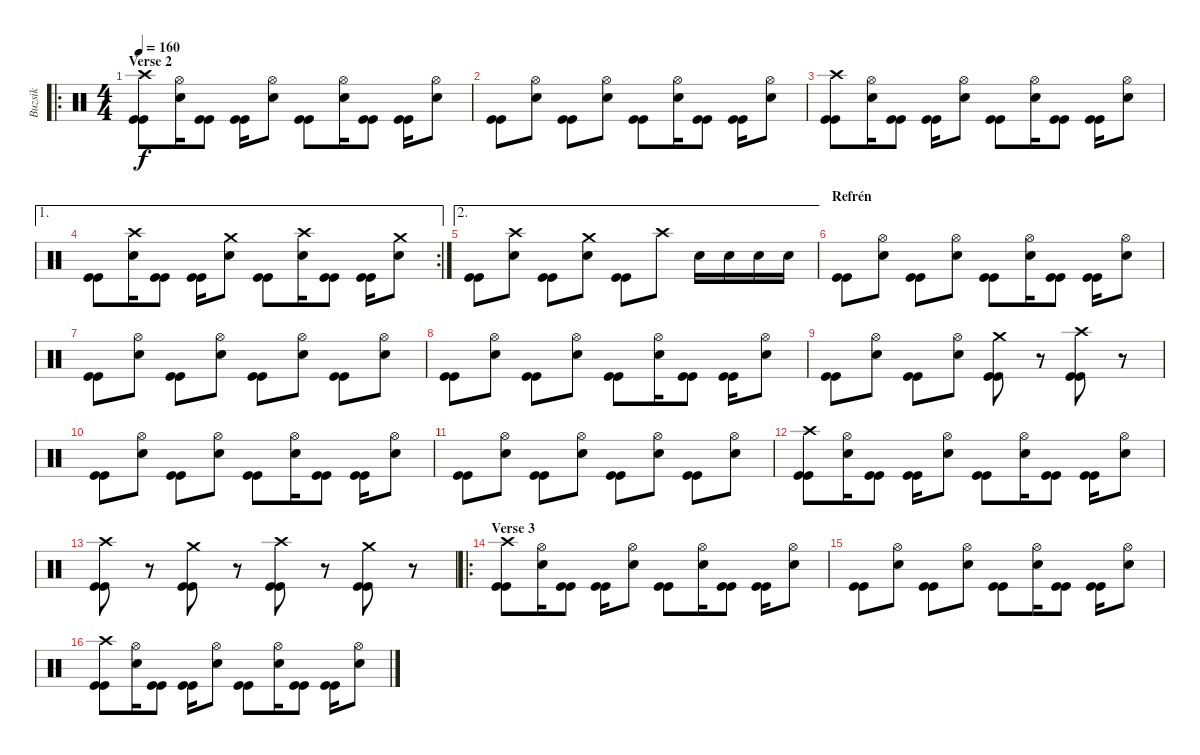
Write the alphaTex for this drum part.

\track ("Buzsik" "Buzsik") {instrument percussion}
\staff {score}
\articulation defaults
\ro
\ts (4 4)
\section ("" "Verse 2")
\tempo 160
\clef neutral
\ks c
("Crash high (hit)" "Kick (hit)" "Kick (hit)").8{dy f} ("Hi-Hat (open)" "Electric Snare (hit)").16 ("Kick (hit)" "Kick (hit)").8 ("Kick (hit)" "Kick (hit)").16 ("Hi-Hat (open)" "Electric Snare (hit)").8 ("Kick (hit)" "Kick (hit)").8 ("Hi-Hat (open)" "Electric Snare (hit)").16 ("Kick (hit)" "Kick (hit)").8 ("Kick (hit)" "Kick (hit)").16 ("Hi-Hat (open)" "Electric Snare (hit)").8 |
("Kick (hit)" "Kick (hit)").8 ("Hi-Hat (open)" "Electric Snare (hit)").8 ("Kick (hit)" "Kick (hit)").8 ("Hi-Hat (open)" "Electric Snare (hit)").8 ("Kick (hit)" "Kick (hit)").8 ("Hi-Hat (open)" "Electric Snare (hit)").16 ("Kick (hit)" "Kick (hit)").8 ("Kick (hit)" "Kick (hit)").16 ("Hi-Hat (open)" "Electric Snare (hit)").8 |
("Crash high (hit)" "Kick (hit)" "Kick (hit)").8 ("Hi-Hat (open)" "Electric Snare (hit)").16 ("Kick (hit)" "Kick (hit)").8 ("Kick (hit)" "Kick (hit)").16 ("Hi-Hat (open)" "Electric Snare (hit)").8 ("Kick (hit)" "Kick (hit)").8 ("Hi-Hat (open)" "Electric Snare (hit)").16 ("Kick (hit)" "Kick (hit)").8 ("Kick (hit)" "Kick (hit)").16 ("Hi-Hat (open)" "Electric Snare (hit)").8 |
\ae 1
\rc 2
("Kick (hit)" "Kick (hit)").8 ("Crash high (hit)" "Electric Snare (hit)").16 ("Kick (hit)" "Kick (hit)").8 ("Kick (hit)" "Kick (hit)").16 ("Crash medium (hit)" "Electric Snare (hit)").8 ("Kick (hit)" "Kick (hit)").8 ("Crash high (hit)" "Electric Snare (hit)").16 ("Kick (hit)" "Kick (hit)").8 ("Kick (hit)" "Kick (hit)").16 ("Crash medium (hit)" "Electric Snare (hit)").8 |
\ae 2
("Kick (hit)" "Kick (hit)").8 ("Crash high (hit)" "Electric Snare (hit)").8 ("Kick (hit)" "Kick (hit)").8 ("Crash medium (hit)" "Electric Snare (hit)").8 ("Kick (hit)" "Kick (hit)").8 "Crash high (hit)".8 "Electric Snare (hit)".16 "Electric Snare (hit)".16 "Electric Snare (hit)".16 "Electric Snare (hit)".16 |
\section ("" "Refrén")
("Kick (hit)" "Kick (hit)").8 ("Hi-Hat (open)" "Electric Snare (hit)").8 ("Kick (hit)" "Kick (hit)").8 ("Hi-Hat (open)" "Electric Snare (hit)").8 ("Kick (hit)" "Kick (hit)").8 ("Hi-Hat (open)" "Electric Snare (hit)").16 ("Kick (hit)" "Kick (hit)").8 ("Kick (hit)" "Kick (hit)").16 ("Hi-Hat (open)" "Electric Snare (hit)").8 |
("Kick (hit)" "Kick (hit)").8 ("Hi-Hat (open)" "Electric Snare (hit)").8 ("Kick (hit)" "Kick (hit)").8 ("Hi-Hat (open)" "Electric Snare (hit)").8 ("Kick (hit)" "Kick (hit)").8 ("Hi-Hat (open)" "Electric Snare (hit)").8 ("Kick (hit)" "Kick (hit)").8 ("Hi-Hat (open)" "Electric Snare (hit)").8 |
("Kick (hit)" "Kick (hit)").8 ("Hi-Hat (open)" "Electric Snare (hit)").8 ("Kick (hit)" "Kick (hit)").8 ("Hi-Hat (open)" "Electric Snare (hit)").8 ("Kick (hit)" "Kick (hit)").8 ("Hi-Hat (open)" "Electric Snare (hit)").16 ("Kick (hit)" "Kick (hit)").8 ("Kick (hit)" "Kick (hit)").16 ("Hi-Hat (open)" "Electric Snare (hit)").8 |
("Kick (hit)" "Kick (hit)").8 ("Hi-Hat (open)" "Electric Snare (hit)").8 ("Kick (hit)" "Kick (hit)").8 ("Hi-Hat (open)" "Electric Snare (hit)").8 ("Crash medium (hit)" "Kick (hit)" "Kick (hit)").8 r.8 ("Crash high (hit)" "Kick (hit)" "Kick (hit)").8 r.8 |
("Kick (hit)" "Kick (hit)").8 ("Hi-Hat (open)" "Electric Snare (hit)").8 ("Kick (hit)" "Kick (hit)").8 ("Hi-Hat (open)" "Electric Snare (hit)").8 ("Kick (hit)" "Kick (hit)").8 ("Hi-Hat (open)" "Electric Snare (hit)").16 ("Kick (hit)" "Kick (hit)").8 ("Kick (hit)" "Kick (hit)").16 ("Hi-Hat (open)" "Electric Snare (hit)").8 |
("Kick (hit)" "Kick (hit)").8 ("Hi-Hat (open)" "Electric Snare (hit)").8 ("Kick (hit)" "Kick (hit)").8 ("Hi-Hat (open)" "Electric Snare (hit)").8 ("Kick (hit)" "Kick (hit)").8 ("Hi-Hat (open)" "Electric Snare (hit)").8 ("Kick (hit)" "Kick (hit)").8 ("Hi-Hat (open)" "Electric Snare (hit)").8 |
("Crash high (hit)" "Kick (hit)" "Kick (hit)").8 ("Hi-Hat (open)" "Electric Snare (hit)").16 ("Kick (hit)" "Kick (hit)").8 ("Kick (hit)" "Kick (hit)").16 ("Hi-Hat (open)" "Electric Snare (hit)").8 ("Kick (hit)" "Kick (hit)").8 ("Hi-Hat (open)" "Electric Snare (hit)").16 ("Kick (hit)" "Kick (hit)").8 ("Kick (hit)" "Kick (hit)").16 ("Hi-Hat (open)" "Electric Snare (hit)").8 |
("Crash high (hit)" "Kick (hit)" "Kick (hit)").8 r.8 ("Crash medium (hit)" "Kick (hit)" "Kick (hit)").8 r.8 ("Crash high (hit)" "Kick (hit)" "Kick (hit)").8 r.8 ("Crash medium (hit)" "Kick (hit)" "Kick (hit)").8 r.8 |
\ro
\section ("" "Verse 3")
("Crash high (hit)" "Kick (hit)" "Kick (hit)").8 ("Hi-Hat (open)" "Electric Snare (hit)").16 ("Kick (hit)" "Kick (hit)").8 ("Kick (hit)" "Kick (hit)").16 ("Hi-Hat (open)" "Electric Snare (hit)").8 ("Kick (hit)" "Kick (hit)").8 ("Hi-Hat (open)" "Electric Snare (hit)").16 ("Kick (hit)" "Kick (hit)").8 ("Kick (hit)" "Kick (hit)").16 ("Hi-Hat (open)" "Electric Snare (hit)").8 |
("Kick (hit)" "Kick (hit)").8 ("Hi-Hat (open)" "Electric Snare (hit)").8 ("Kick (hit)" "Kick (hit)").8 ("Hi-Hat (open)" "Electric Snare (hit)").8 ("Kick (hit)" "Kick (hit)").8 ("Hi-Hat (open)" "Electric Snare (hit)").16 ("Kick (hit)" "Kick (hit)").8 ("Kick (hit)" "Kick (hit)").16 ("Hi-Hat (open)" "Electric Snare (hit)").8 |
("Crash high (hit)" "Kick (hit)" "Kick (hit)").8 ("Hi-Hat (open)" "Electric Snare (hit)").16 ("Kick (hit)" "Kick (hit)").8 ("Kick (hit)" "Kick (hit)").16 ("Hi-Hat (open)" "Electric Snare (hit)").8 ("Kick (hit)" "Kick (hit)").8 ("Hi-Hat (open)" "Electric Snare (hit)").16 ("Kick (hit)" "Kick (hit)").8 ("Kick (hit)" "Kick (hit)").16 ("Hi-Hat (open)" "Electric Snare (hit)").8
